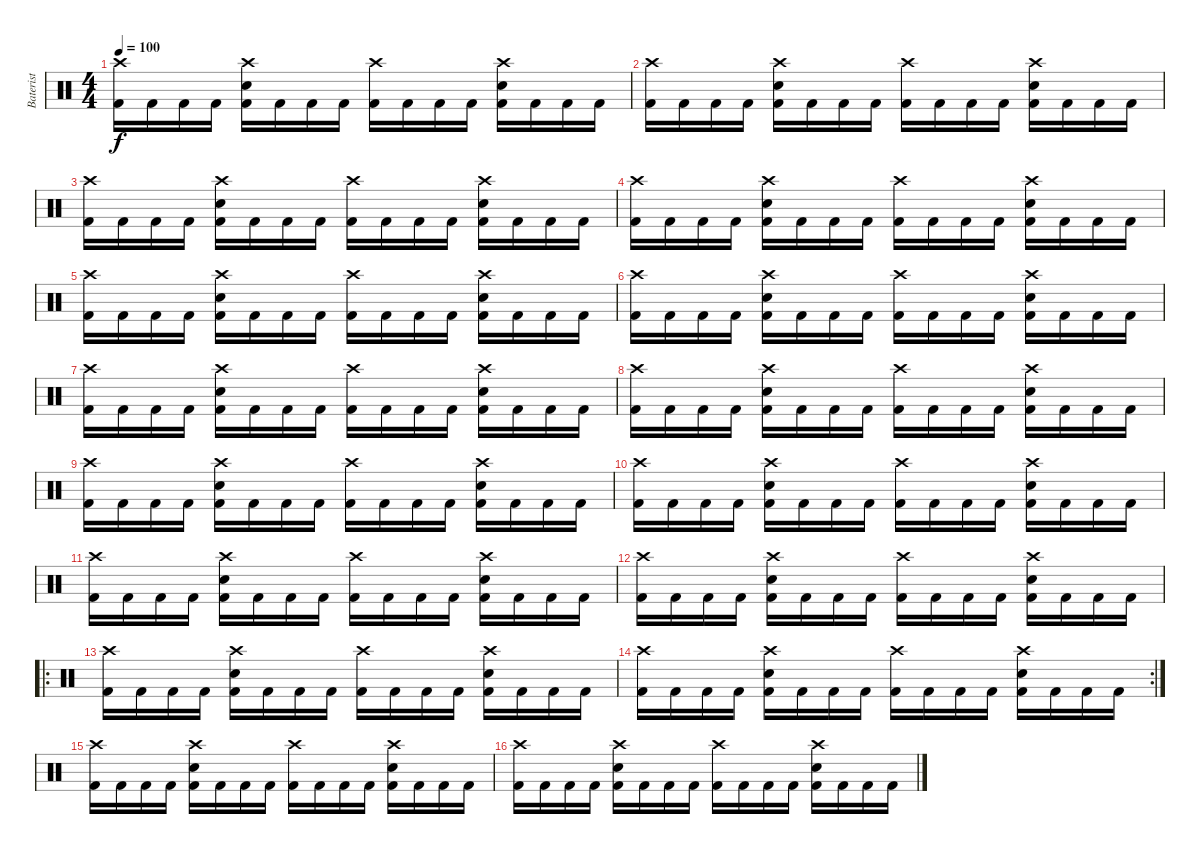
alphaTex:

\track ("Baterist" "Baterist") {instrument percussion}
\staff {score}
\articulation defaults
\ts (4 4)
\tempo 100
\clef neutral
\ks c
("Crash high (hit)" "Kick (hit) 2").16{dy f} "Kick (hit) 2".16 "Kick (hit) 2".16 "Kick (hit) 2".16 ("Crash high (hit)" "Electric Snare (hit)" "Kick (hit) 2").16 "Kick (hit) 2".16 "Kick (hit) 2".16 "Kick (hit) 2".16 ("Crash high (hit)" "Kick (hit) 2").16 "Kick (hit) 2".16 "Kick (hit) 2".16 "Kick (hit) 2".16 ("Crash high (hit)" "Electric Snare (hit)" "Kick (hit) 2").16 "Kick (hit) 2".16 "Kick (hit) 2".16 "Kick (hit) 2".16 |
("Crash high (hit)" "Kick (hit) 2").16 "Kick (hit) 2".16 "Kick (hit) 2".16 "Kick (hit) 2".16 ("Crash high (hit)" "Electric Snare (hit)" "Kick (hit) 2").16 "Kick (hit) 2".16 "Kick (hit) 2".16 "Kick (hit) 2".16 ("Crash high (hit)" "Kick (hit) 2").16 "Kick (hit) 2".16 "Kick (hit) 2".16 "Kick (hit) 2".16 ("Crash high (hit)" "Electric Snare (hit)" "Kick (hit) 2").16 "Kick (hit) 2".16 "Kick (hit) 2".16 "Kick (hit) 2".16 |
("Crash high (hit)" "Kick (hit) 2").16 "Kick (hit) 2".16 "Kick (hit) 2".16 "Kick (hit) 2".16 ("Crash high (hit)" "Electric Snare (hit)" "Kick (hit) 2").16 "Kick (hit) 2".16 "Kick (hit) 2".16 "Kick (hit) 2".16 ("Crash high (hit)" "Kick (hit) 2").16 "Kick (hit) 2".16 "Kick (hit) 2".16 "Kick (hit) 2".16 ("Crash high (hit)" "Electric Snare (hit)" "Kick (hit) 2").16 "Kick (hit) 2".16 "Kick (hit) 2".16 "Kick (hit) 2".16 |
("Crash high (hit)" "Kick (hit) 2").16 "Kick (hit) 2".16 "Kick (hit) 2".16 "Kick (hit) 2".16 ("Crash high (hit)" "Electric Snare (hit)" "Kick (hit) 2").16 "Kick (hit) 2".16 "Kick (hit) 2".16 "Kick (hit) 2".16 ("Crash high (hit)" "Kick (hit) 2").16 "Kick (hit) 2".16 "Kick (hit) 2".16 "Kick (hit) 2".16 ("Crash high (hit)" "Electric Snare (hit)" "Kick (hit) 2").16 "Kick (hit) 2".16 "Kick (hit) 2".16 "Kick (hit) 2".16 |
("Crash high (hit)" "Kick (hit) 2").16 "Kick (hit) 2".16 "Kick (hit) 2".16 "Kick (hit) 2".16 ("Crash high (hit)" "Electric Snare (hit)" "Kick (hit) 2").16 "Kick (hit) 2".16 "Kick (hit) 2".16 "Kick (hit) 2".16 ("Crash high (hit)" "Kick (hit) 2").16 "Kick (hit) 2".16 "Kick (hit) 2".16 "Kick (hit) 2".16 ("Crash high (hit)" "Electric Snare (hit)" "Kick (hit) 2").16 "Kick (hit) 2".16 "Kick (hit) 2".16 "Kick (hit) 2".16 |
("Crash high (hit)" "Kick (hit) 2").16 "Kick (hit) 2".16 "Kick (hit) 2".16 "Kick (hit) 2".16 ("Crash high (hit)" "Electric Snare (hit)" "Kick (hit) 2").16 "Kick (hit) 2".16 "Kick (hit) 2".16 "Kick (hit) 2".16 ("Crash high (hit)" "Kick (hit) 2").16 "Kick (hit) 2".16 "Kick (hit) 2".16 "Kick (hit) 2".16 ("Crash high (hit)" "Electric Snare (hit)" "Kick (hit) 2").16 "Kick (hit) 2".16 "Kick (hit) 2".16 "Kick (hit) 2".16 |
("Crash high (hit)" "Kick (hit) 2").16 "Kick (hit) 2".16 "Kick (hit) 2".16 "Kick (hit) 2".16 ("Crash high (hit)" "Electric Snare (hit)" "Kick (hit) 2").16 "Kick (hit) 2".16 "Kick (hit) 2".16 "Kick (hit) 2".16 ("Crash high (hit)" "Kick (hit) 2").16 "Kick (hit) 2".16 "Kick (hit) 2".16 "Kick (hit) 2".16 ("Crash high (hit)" "Electric Snare (hit)" "Kick (hit) 2").16 "Kick (hit) 2".16 "Kick (hit) 2".16 "Kick (hit) 2".16 |
("Crash high (hit)" "Kick (hit) 2").16 "Kick (hit) 2".16 "Kick (hit) 2".16 "Kick (hit) 2".16 ("Crash high (hit)" "Electric Snare (hit)" "Kick (hit) 2").16 "Kick (hit) 2".16 "Kick (hit) 2".16 "Kick (hit) 2".16 ("Crash high (hit)" "Kick (hit) 2").16 "Kick (hit) 2".16 "Kick (hit) 2".16 "Kick (hit) 2".16 ("Crash high (hit)" "Electric Snare (hit)" "Kick (hit) 2").16 "Kick (hit) 2".16 "Kick (hit) 2".16 "Kick (hit) 2".16 |
("Crash high (hit)" "Kick (hit) 2").16 "Kick (hit) 2".16 "Kick (hit) 2".16 "Kick (hit) 2".16 ("Crash high (hit)" "Electric Snare (hit)" "Kick (hit) 2").16 "Kick (hit) 2".16 "Kick (hit) 2".16 "Kick (hit) 2".16 ("Crash high (hit)" "Kick (hit) 2").16 "Kick (hit) 2".16 "Kick (hit) 2".16 "Kick (hit) 2".16 ("Crash high (hit)" "Electric Snare (hit)" "Kick (hit) 2").16 "Kick (hit) 2".16 "Kick (hit) 2".16 "Kick (hit) 2".16 |
("Crash high (hit)" "Kick (hit) 2").16 "Kick (hit) 2".16 "Kick (hit) 2".16 "Kick (hit) 2".16 ("Crash high (hit)" "Electric Snare (hit)" "Kick (hit) 2").16 "Kick (hit) 2".16 "Kick (hit) 2".16 "Kick (hit) 2".16 ("Crash high (hit)" "Kick (hit) 2").16 "Kick (hit) 2".16 "Kick (hit) 2".16 "Kick (hit) 2".16 ("Crash high (hit)" "Electric Snare (hit)" "Kick (hit) 2").16 "Kick (hit) 2".16 "Kick (hit) 2".16 "Kick (hit) 2".16 |
("Crash high (hit)" "Kick (hit) 2").16 "Kick (hit) 2".16 "Kick (hit) 2".16 "Kick (hit) 2".16 ("Crash high (hit)" "Electric Snare (hit)" "Kick (hit) 2").16 "Kick (hit) 2".16 "Kick (hit) 2".16 "Kick (hit) 2".16 ("Crash high (hit)" "Kick (hit) 2").16 "Kick (hit) 2".16 "Kick (hit) 2".16 "Kick (hit) 2".16 ("Crash high (hit)" "Electric Snare (hit)" "Kick (hit) 2").16 "Kick (hit) 2".16 "Kick (hit) 2".16 "Kick (hit) 2".16 |
("Crash high (hit)" "Kick (hit) 2").16 "Kick (hit) 2".16 "Kick (hit) 2".16 "Kick (hit) 2".16 ("Crash high (hit)" "Electric Snare (hit)" "Kick (hit) 2").16 "Kick (hit) 2".16 "Kick (hit) 2".16 "Kick (hit) 2".16 ("Crash high (hit)" "Kick (hit) 2").16 "Kick (hit) 2".16 "Kick (hit) 2".16 "Kick (hit) 2".16 ("Crash high (hit)" "Electric Snare (hit)" "Kick (hit) 2").16 "Kick (hit) 2".16 "Kick (hit) 2".16 "Kick (hit) 2".16 |
\ro
("Crash high (hit)" "Kick (hit) 2").16 "Kick (hit) 2".16 "Kick (hit) 2".16 "Kick (hit) 2".16 ("Crash high (hit)" "Electric Snare (hit)" "Kick (hit) 2").16 "Kick (hit) 2".16 "Kick (hit) 2".16 "Kick (hit) 2".16 ("Crash high (hit)" "Kick (hit) 2").16 "Kick (hit) 2".16 "Kick (hit) 2".16 "Kick (hit) 2".16 ("Crash high (hit)" "Electric Snare (hit)" "Kick (hit) 2").16 "Kick (hit) 2".16 "Kick (hit) 2".16 "Kick (hit) 2".16 |
\rc 2
("Crash high (hit)" "Kick (hit) 2").16 "Kick (hit) 2".16 "Kick (hit) 2".16 "Kick (hit) 2".16 ("Crash high (hit)" "Electric Snare (hit)" "Kick (hit) 2").16 "Kick (hit) 2".16 "Kick (hit) 2".16 "Kick (hit) 2".16 ("Crash high (hit)" "Kick (hit) 2").16 "Kick (hit) 2".16 "Kick (hit) 2".16 "Kick (hit) 2".16 ("Crash high (hit)" "Electric Snare (hit)" "Kick (hit) 2").16 "Kick (hit) 2".16 "Kick (hit) 2".16 "Kick (hit) 2".16 |
("Crash high (hit)" "Kick (hit) 2").16 "Kick (hit) 2".16 "Kick (hit) 2".16 "Kick (hit) 2".16 ("Crash high (hit)" "Electric Snare (hit)" "Kick (hit) 2").16 "Kick (hit) 2".16 "Kick (hit) 2".16 "Kick (hit) 2".16 ("Crash high (hit)" "Kick (hit) 2").16 "Kick (hit) 2".16 "Kick (hit) 2".16 "Kick (hit) 2".16 ("Crash high (hit)" "Electric Snare (hit)" "Kick (hit) 2").16 "Kick (hit) 2".16 "Kick (hit) 2".16 "Kick (hit) 2".16 |
("Crash high (hit)" "Kick (hit) 2").16 "Kick (hit) 2".16 "Kick (hit) 2".16 "Kick (hit) 2".16 ("Crash high (hit)" "Electric Snare (hit)" "Kick (hit) 2").16 "Kick (hit) 2".16 "Kick (hit) 2".16 "Kick (hit) 2".16 ("Crash high (hit)" "Kick (hit) 2").16 "Kick (hit) 2".16 "Kick (hit) 2".16 "Kick (hit) 2".16 ("Crash high (hit)" "Electric Snare (hit)" "Kick (hit) 2").16 "Kick (hit) 2".16 "Kick (hit) 2".16 "Kick (hit) 2".16
